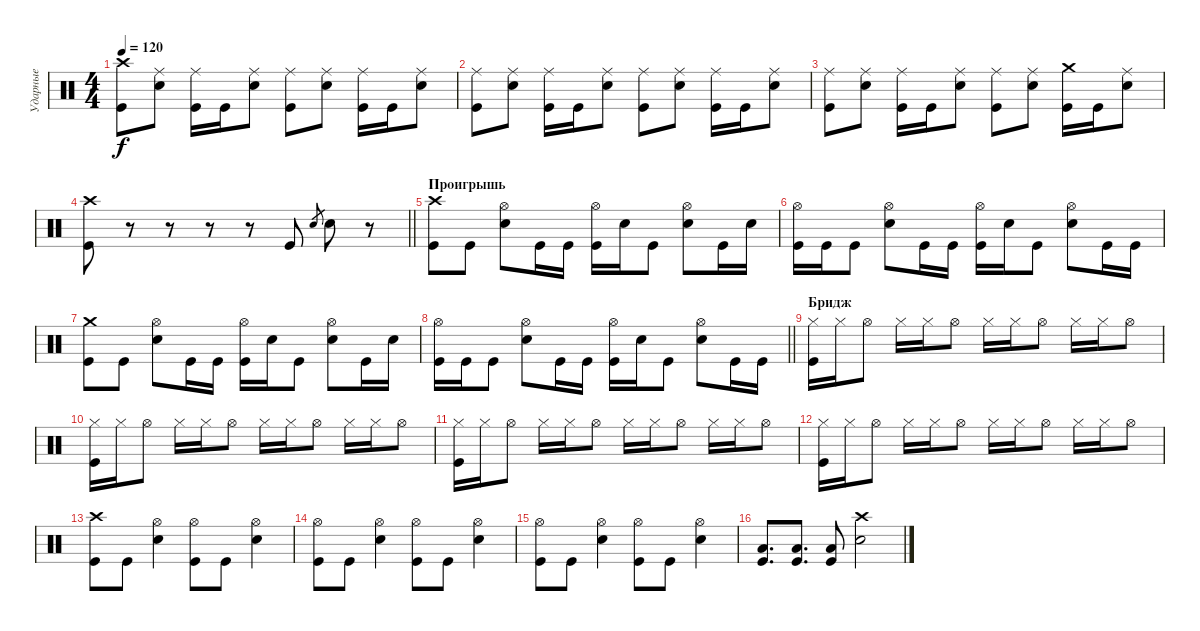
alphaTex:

\track ("Ударные" "Ударные") {solo instrument percussion}
\staff {score}
\articulation defaults
\ts (4 4)
\tempo 120
\clef neutral
\ks c
("Kick (hit)" "Crash high (hit)").8{dy f} ("Snare (hit) 2" "Ride (middle)").8 ("Kick (hit)" "Ride (middle)").16 "Kick (hit)".16 ("Snare (hit) 2" "Ride (middle)").8 ("Kick (hit)" "Ride (middle)").8 ("Snare (hit) 2" "Ride (middle)").8 ("Kick (hit)" "Ride (middle)").16 "Kick (hit)".16 ("Snare (hit) 2" "Ride (middle)").8 |
("Kick (hit)" "Ride (middle)").8 ("Snare (hit) 2" "Ride (middle)").8 ("Kick (hit)" "Ride (middle)").16 "Kick (hit)".16 ("Snare (hit) 2" "Ride (middle)").8 ("Kick (hit)" "Ride (middle)").8 ("Snare (hit) 2" "Ride (middle)").8 ("Kick (hit)" "Ride (middle)").16 "Kick (hit)".16 ("Snare (hit) 2" "Ride (middle)").8 |
("Kick (hit)" "Ride (middle)").8 ("Snare (hit) 2" "Ride (middle)").8 ("Kick (hit)" "Ride (middle)").16 "Kick (hit)".16 ("Snare (hit) 2" "Ride (middle)").8 ("Kick (hit)" "Ride (middle)").8 ("Snare (hit) 2" "Ride (middle)").8 ("Kick (hit)" "Crash medium (hit)").16 "Kick (hit)".16 ("Snare (hit) 2" "Ride (middle)").8 |
\barLineRight lightlight
("Kick (hit)" "Crash high (hit)").8 r.8 r.8 r.8 r.8 "Kick (hit)".8 "Snare (hit) 2".8{gr} "Snare (hit) 2".8 r.8 |
\section ("" "Проигрышь")
("Kick (hit)" "Crash high (hit)").8 "Kick (hit)".8 ("Snare (hit) 2" "Hi-Hat (open)").8 "Kick (hit)".16 "Kick (hit)".16 ("Kick (hit)" "Hi-Hat (open)").16 "Snare (hit) 2".16 "Kick (hit)".8 ("Snare (hit) 2" "Hi-Hat (open)").8 "Kick (hit)".16 "Snare (hit) 2".16 |
("Kick (hit)" "Hi-Hat (open)").16 "Kick (hit)".16 "Kick (hit)".8 ("Snare (hit) 2" "Hi-Hat (open)").8 "Kick (hit)".16 "Kick (hit)".16 ("Kick (hit)" "Hi-Hat (open)").16 "Snare (hit) 2".16 "Kick (hit)".8 ("Snare (hit) 2" "Hi-Hat (open)").8 "Kick (hit)".16 "Kick (hit)".16 |
("Kick (hit)" "Crash medium (hit)").8 "Kick (hit)".8 ("Snare (hit) 2" "Hi-Hat (open)").8 "Kick (hit)".16 "Kick (hit)".16 ("Kick (hit)" "Hi-Hat (open)").16 "Snare (hit) 2".16 "Kick (hit)".8 ("Snare (hit) 2" "Hi-Hat (open)").8 "Kick (hit)".16 "Snare (hit) 2".16 |
\barLineRight lightlight
("Kick (hit)" "Hi-Hat (open)").16 "Kick (hit)".16 "Kick (hit)".8 ("Snare (hit) 2" "Hi-Hat (open)").8 "Kick (hit)".16 "Kick (hit)".16 ("Kick (hit)" "Hi-Hat (open)").16 "Snare (hit) 2".16 "Kick (hit)".8 ("Snare (hit) 2" "Hi-Hat (open)").8 "Kick (hit)".16 "Kick (hit)".16 |
\section ("" "Бридж")
("Hi-Hat (closed)" "Kick (hit)").16 "Hi-Hat (closed)".16 "Hi-Hat (open)".8 "Hi-Hat (closed)".16 "Hi-Hat (closed)".16 "Hi-Hat (open)".8 "Hi-Hat (closed)".16 "Hi-Hat (closed)".16 "Hi-Hat (open)".8 "Hi-Hat (closed)".16 "Hi-Hat (closed)".16 "Hi-Hat (open)".8 |
("Hi-Hat (closed)" "Kick (hit)").16 "Hi-Hat (closed)".16 "Hi-Hat (open)".8 "Hi-Hat (closed)".16 "Hi-Hat (closed)".16 "Hi-Hat (open)".8 "Hi-Hat (closed)".16 "Hi-Hat (closed)".16 "Hi-Hat (open)".8 "Hi-Hat (closed)".16 "Hi-Hat (closed)".16 "Hi-Hat (open)".8 |
("Hi-Hat (closed)" "Kick (hit)").16 "Hi-Hat (closed)".16 "Hi-Hat (open)".8 "Hi-Hat (closed)".16 "Hi-Hat (closed)".16 "Hi-Hat (open)".8 "Hi-Hat (closed)".16 "Hi-Hat (closed)".16 "Hi-Hat (open)".8 "Hi-Hat (closed)".16 "Hi-Hat (closed)".16 "Hi-Hat (open)".8 |
("Hi-Hat (closed)" "Kick (hit)").16 "Hi-Hat (closed)".16 "Hi-Hat (open)".8 "Hi-Hat (closed)".16 "Hi-Hat (closed)".16 "Hi-Hat (open)".8 "Hi-Hat (closed)".16 "Hi-Hat (closed)".16 "Hi-Hat (open)".8 "Hi-Hat (closed)".16 "Hi-Hat (closed)".16 "Hi-Hat (open)".8 |
("Kick (hit)" "Crash high (hit)").8 "Kick (hit)".8 ("Snare (hit) 2" "Hi-Hat (open)").4 ("Kick (hit)" "Hi-Hat (open)").8 "Kick (hit)".8 ("Snare (hit) 2" "Hi-Hat (open)").4 |
("Kick (hit)" "Hi-Hat (open)").8 "Kick (hit)".8 ("Snare (hit) 2" "Hi-Hat (open)").4 ("Kick (hit)" "Hi-Hat (open)").8 "Kick (hit)".8 ("Snare (hit) 2" "Hi-Hat (open)").4 |
("Kick (hit)" "Hi-Hat (open)").8 "Kick (hit)".8 ("Snare (hit) 2" "Hi-Hat (open)").4 ("Kick (hit)" "Hi-Hat (open)").8 "Kick (hit)".8 ("Snare (hit) 2" "Hi-Hat (open)").4 |
("Kick (hit)" "Low Floor Tom (hit)").8{d} ("Kick (hit)" "Low Floor Tom (hit)").8{d} ("Kick (hit)" "Low Floor Tom (hit)").8 ("Crash high (hit)" "Snare (hit) 2").2
